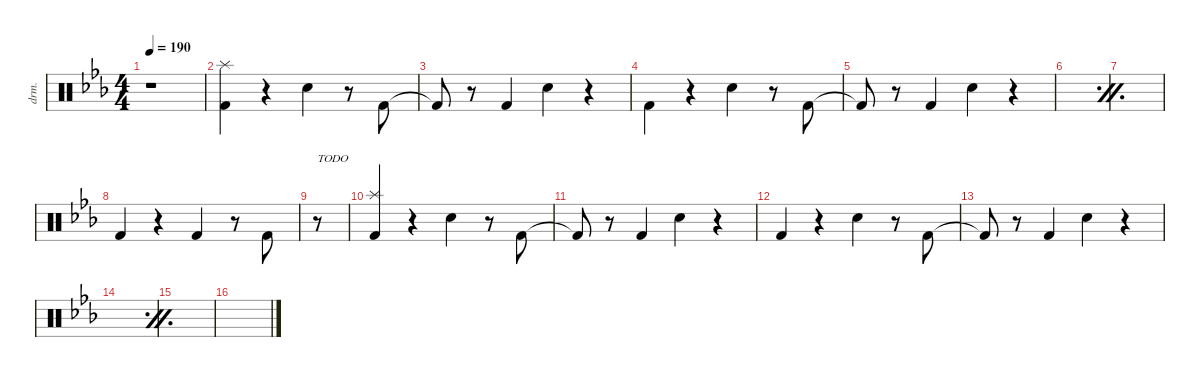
\defaultSystemsLayout 4
\hideDynamics
\bracketExtendMode nobrackets
\track ("Drumkit" "drm.") {instrument percussion}
\staff {score}
\articulation defaults
\ts (4 4)
\tempo 190
\clef neutral
\ks cminor
r.1{dy mf beam Down} |
("Splash (hit)"{acc forcenatural} "Kick (hit) 2"{acc forcenatural}).4{beam Down} r.4{beam Down} "Snare (hit) 2"{acc forcenatural}.4{beam Down} r.8{beam Down} "Kick (hit) 2"{acc forcenatural}.8{beam Up} |
"Kick (hit) 2"{t acc forcenatural}.8{beam Up} r.8{beam Down} "Kick (hit) 2"{acc forcenatural}.4{beam Up} "Snare (hit) 2"{acc forcenatural}.4{beam Down} r.4{beam Down} |
"Kick (hit) 2"{acc forcenatural}.4{beam Down} r.4{beam Down} "Snare (hit) 2"{acc forcenatural}.4{beam Down} r.8{beam Down} "Kick (hit) 2"{acc forcenatural}.8{beam Up} |
"Kick (hit) 2"{t acc forcenatural}.8{beam Up} r.8{beam Down} "Kick (hit) 2"{acc forcenatural}.4{beam Up} "Snare (hit) 2"{acc forcenatural}.4{beam Down} r.4{beam Down} |
\simile firstofdouble
|
\simile secondofdouble
|
\simile none "Kick (hit) 2"{acc forcenatural}.4{beam Up}
r.4{beam Down} "Kick (hit) 2"{acc forcenatural}.4{beam Up} r.8{beam Down} "Kick (hit) 2"{acc forcenatural}.8{beam Up} |
r.8{txt "TODO" beam Down} |
("Kick (hit) 2"{acc forcenatural} "Splash (hit)"{acc forcenatural}).4{beam Up} r.4{beam Down} "Snare (hit) 2"{acc forcenatural}.4{beam Down} r.8{beam Down} "Kick (hit) 2"{acc forcenatural}.8{beam Up} |
"Kick (hit) 2"{t acc forcenatural}.8{beam Up} r.8{beam Down} "Kick (hit) 2"{acc forcenatural}.4{beam Up} "Snare (hit) 2"{acc forcenatural}.4{beam Down} r.4{beam Down} |
"Kick (hit) 2"{acc forcenatural}.4{beam Up} r.4{beam Down} "Snare (hit) 2"{acc forcenatural}.4{beam Down} r.8{beam Down} "Kick (hit) 2"{acc forcenatural}.8{beam Up} |
"Kick (hit) 2"{t acc forcenatural}.8{beam Up} r.8{beam Down} "Kick (hit) 2"{acc forcenatural}.4{beam Up} "Snare (hit) 2"{acc forcenatural}.4{beam Down} r.4{beam Down} |
\simile firstofdouble
|
\simile secondofdouble
|
\simile firstofdouble
